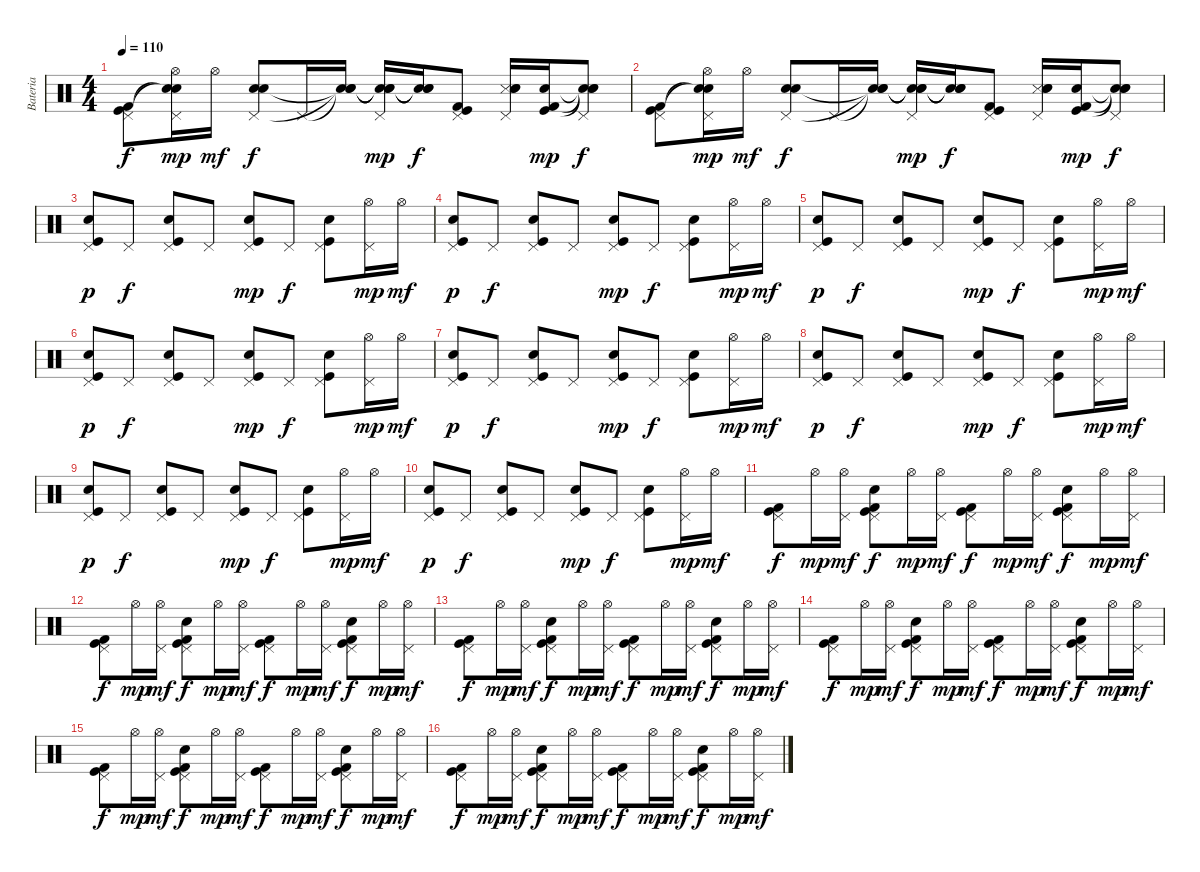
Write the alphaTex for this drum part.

\track ("Bateria" "Bateria") {instrument percussion}
\staff {score}
\articulation defaults
\ts (4 4)
\tempo 110
\clef neutral
\ks c
("Kick (hit)" "Kick (hit) 2" "Pedal Hi-Hat (hit)").8{dy f} ("Snare (hit)"{t} "Snare (hit)"{t} "Hi-Hat (open)" "Pedal Hi-Hat (hit)").16{dy mp} "Hi-Hat (open)".16{dy mf} ("Snare (hit) 2" "Electric Snare (hit)" "Pedal Hi-Hat (hit)").8{dy f} "Pedal Hi-Hat (hit)".16 ("Snare (hit)"{t} "Snare (hit)"{t} "Snare (hit)"{t}).16 ("Snare (hit)"{t} "Snare (hit)"{t} "Snare (hit)"{t} "Pedal Hi-Hat (hit)").16{dy mp} ("Snare (hit)"{t} "Snare (hit)"{t} "Snare (hit)"{t}).16{dy f} ("Kick (hit) 2" "Kick (hit)" "Pedal Hi-Hat (hit)").8 ("Snare (side stick) 3" "Electric Snare (hit)" "Snare (hit) 2" "Pedal Hi-Hat (hit)").16 ("Kick (hit) 2" "Snare (hit) 2" "Kick (hit)").16{dy mp} ("Snare (hit)"{t} "Snare (hit)"{t} "Snare (hit)"{t} "Pedal Hi-Hat (hit)").8{dy f} |
("Kick (hit)" "Kick (hit) 2" "Pedal Hi-Hat (hit)").8 ("Snare (hit)"{t} "Snare (hit)"{t} "Hi-Hat (open)" "Pedal Hi-Hat (hit)").16{dy mp} "Hi-Hat (open)".16{dy mf} ("Snare (hit) 2" "Electric Snare (hit)" "Pedal Hi-Hat (hit)").8{dy f} "Pedal Hi-Hat (hit)".16 ("Snare (hit)"{t} "Snare (hit)"{t} "Snare (hit)"{t}).16 ("Snare (hit)"{t} "Snare (hit)"{t} "Snare (hit)"{t} "Pedal Hi-Hat (hit)").16{dy mp} ("Snare (hit)"{t} "Snare (hit)"{t} "Snare (hit)"{t}).16{dy f} ("Kick (hit) 2" "Kick (hit)" "Pedal Hi-Hat (hit)").8 ("Snare (side stick) 3" "Electric Snare (hit)" "Snare (hit) 2" "Pedal Hi-Hat (hit)").16 ("Kick (hit) 2" "Snare (hit) 2" "Kick (hit)").16{dy mp} ("Snare (hit)"{t} "Snare (hit)"{t} "Snare (hit)"{t} "Pedal Hi-Hat (hit)").8{dy f} |
("Kick (hit)" "Electric Snare (hit)" "Pedal Hi-Hat (hit)").8{dy p} "Pedal Hi-Hat (hit)".8{dy f} ("Kick (hit)" "Electric Snare (hit)" "Pedal Hi-Hat (hit)").8 "Pedal Hi-Hat (hit)".8 ("Kick (hit)" "Electric Snare (hit)" "Pedal Hi-Hat (hit)").8{dy mp} "Pedal Hi-Hat (hit)".8{dy f} ("Kick (hit)" "Electric Snare (hit)" "Pedal Hi-Hat (hit)").8 ("Pedal Hi-Hat (hit)" "Hi-Hat (open)").16{dy mp} "Hi-Hat (open)".16{dy mf} |
("Kick (hit)" "Electric Snare (hit)" "Pedal Hi-Hat (hit)").8{dy p} "Pedal Hi-Hat (hit)".8{dy f} ("Kick (hit)" "Electric Snare (hit)" "Pedal Hi-Hat (hit)").8 "Pedal Hi-Hat (hit)".8 ("Kick (hit)" "Electric Snare (hit)" "Pedal Hi-Hat (hit)").8{dy mp} "Pedal Hi-Hat (hit)".8{dy f} ("Kick (hit)" "Electric Snare (hit)" "Pedal Hi-Hat (hit)").8 ("Pedal Hi-Hat (hit)" "Hi-Hat (open)").16{dy mp} "Hi-Hat (open)".16{dy mf} |
("Kick (hit)" "Electric Snare (hit)" "Pedal Hi-Hat (hit)").8{dy p} "Pedal Hi-Hat (hit)".8{dy f} ("Kick (hit)" "Electric Snare (hit)" "Pedal Hi-Hat (hit)").8 "Pedal Hi-Hat (hit)".8 ("Kick (hit)" "Electric Snare (hit)" "Pedal Hi-Hat (hit)").8{dy mp} "Pedal Hi-Hat (hit)".8{dy f} ("Kick (hit)" "Electric Snare (hit)" "Pedal Hi-Hat (hit)").8 ("Pedal Hi-Hat (hit)" "Hi-Hat (open)").16{dy mp} "Hi-Hat (open)".16{dy mf} |
("Kick (hit)" "Electric Snare (hit)" "Pedal Hi-Hat (hit)").8{dy p} "Pedal Hi-Hat (hit)".8{dy f} ("Kick (hit)" "Electric Snare (hit)" "Pedal Hi-Hat (hit)").8 "Pedal Hi-Hat (hit)".8 ("Kick (hit)" "Electric Snare (hit)" "Pedal Hi-Hat (hit)").8{dy mp} "Pedal Hi-Hat (hit)".8{dy f} ("Kick (hit)" "Electric Snare (hit)" "Pedal Hi-Hat (hit)").8 ("Pedal Hi-Hat (hit)" "Hi-Hat (open)").16{dy mp} "Hi-Hat (open)".16{dy mf} |
("Kick (hit)" "Electric Snare (hit)" "Pedal Hi-Hat (hit)").8{dy p} "Pedal Hi-Hat (hit)".8{dy f} ("Kick (hit)" "Electric Snare (hit)" "Pedal Hi-Hat (hit)").8 "Pedal Hi-Hat (hit)".8 ("Kick (hit)" "Electric Snare (hit)" "Pedal Hi-Hat (hit)").8{dy mp} "Pedal Hi-Hat (hit)".8{dy f} ("Kick (hit)" "Electric Snare (hit)" "Pedal Hi-Hat (hit)").8 ("Pedal Hi-Hat (hit)" "Hi-Hat (open)").16{dy mp} "Hi-Hat (open)".16{dy mf} |
("Kick (hit)" "Electric Snare (hit)" "Pedal Hi-Hat (hit)").8{dy p} "Pedal Hi-Hat (hit)".8{dy f} ("Kick (hit)" "Electric Snare (hit)" "Pedal Hi-Hat (hit)").8 "Pedal Hi-Hat (hit)".8 ("Kick (hit)" "Electric Snare (hit)" "Pedal Hi-Hat (hit)").8{dy mp} "Pedal Hi-Hat (hit)".8{dy f} ("Kick (hit)" "Electric Snare (hit)" "Pedal Hi-Hat (hit)").8 ("Pedal Hi-Hat (hit)" "Hi-Hat (open)").16{dy mp} "Hi-Hat (open)".16{dy mf} |
("Kick (hit)" "Electric Snare (hit)" "Pedal Hi-Hat (hit)").8{dy p} "Pedal Hi-Hat (hit)".8{dy f} ("Kick (hit)" "Electric Snare (hit)" "Pedal Hi-Hat (hit)").8 "Pedal Hi-Hat (hit)".8 ("Kick (hit)" "Electric Snare (hit)" "Pedal Hi-Hat (hit)").8{dy mp} "Pedal Hi-Hat (hit)".8{dy f} ("Kick (hit)" "Electric Snare (hit)" "Pedal Hi-Hat (hit)").8 ("Pedal Hi-Hat (hit)" "Hi-Hat (open)").16{dy mp} "Hi-Hat (open)".16{dy mf} |
("Kick (hit)" "Electric Snare (hit)" "Pedal Hi-Hat (hit)").8{dy p} "Pedal Hi-Hat (hit)".8{dy f} ("Kick (hit)" "Electric Snare (hit)" "Pedal Hi-Hat (hit)").8 "Pedal Hi-Hat (hit)".8 ("Kick (hit)" "Electric Snare (hit)" "Pedal Hi-Hat (hit)").8{dy mp} "Pedal Hi-Hat (hit)".8{dy f} ("Kick (hit)" "Electric Snare (hit)" "Pedal Hi-Hat (hit)").8 ("Pedal Hi-Hat (hit)" "Hi-Hat (open)").16{dy mp} "Hi-Hat (open)".16{dy mf} |
("Kick (hit)" "Kick (hit) 2" "Pedal Hi-Hat (hit)").8{dy f} "Hi-Hat (open)".16{dy mp} ("Hi-Hat (open)" "Pedal Hi-Hat (hit)").16{dy mf} ("Kick (hit) 2" "Kick (hit)" "Electric Snare (hit)" "Pedal Hi-Hat (hit)").8{dy f} "Hi-Hat (open)".16{dy mp} ("Hi-Hat (open)" "Pedal Hi-Hat (hit)").16{dy mf} ("Kick (hit) 2" "Kick (hit)" "Pedal Hi-Hat (hit)").8{dy f} "Hi-Hat (open)".16{dy mp} ("Hi-Hat (open)" "Pedal Hi-Hat (hit)").16{dy mf} ("Kick (hit) 2" "Kick (hit)" "Electric Snare (hit)" "Pedal Hi-Hat (hit)").8{dy f} "Hi-Hat (open)".16{dy mp} ("Hi-Hat (open)" "Pedal Hi-Hat (hit)").16{dy mf} |
("Kick (hit)" "Kick (hit) 2" "Pedal Hi-Hat (hit)").8{dy f} "Hi-Hat (open)".16{dy mp} ("Hi-Hat (open)" "Pedal Hi-Hat (hit)").16{dy mf} ("Kick (hit) 2" "Kick (hit)" "Electric Snare (hit)" "Pedal Hi-Hat (hit)").8{dy f} "Hi-Hat (open)".16{dy mp} ("Hi-Hat (open)" "Pedal Hi-Hat (hit)").16{dy mf} ("Kick (hit) 2" "Kick (hit)" "Pedal Hi-Hat (hit)").8{dy f} "Hi-Hat (open)".16{dy mp} ("Hi-Hat (open)" "Pedal Hi-Hat (hit)").16{dy mf} ("Kick (hit) 2" "Kick (hit)" "Electric Snare (hit)" "Pedal Hi-Hat (hit)").8{dy f} "Hi-Hat (open)".16{dy mp} ("Hi-Hat (open)" "Pedal Hi-Hat (hit)").16{dy mf} |
("Kick (hit)" "Kick (hit) 2" "Pedal Hi-Hat (hit)").8{dy f} "Hi-Hat (open)".16{dy mp} ("Hi-Hat (open)" "Pedal Hi-Hat (hit)").16{dy mf} ("Kick (hit) 2" "Kick (hit)" "Electric Snare (hit)" "Pedal Hi-Hat (hit)").8{dy f} "Hi-Hat (open)".16{dy mp} ("Hi-Hat (open)" "Pedal Hi-Hat (hit)").16{dy mf} ("Kick (hit) 2" "Kick (hit)" "Pedal Hi-Hat (hit)").8{dy f} "Hi-Hat (open)".16{dy mp} ("Hi-Hat (open)" "Pedal Hi-Hat (hit)").16{dy mf} ("Kick (hit) 2" "Kick (hit)" "Electric Snare (hit)" "Pedal Hi-Hat (hit)").8{dy f} "Hi-Hat (open)".16{dy mp} ("Hi-Hat (open)" "Pedal Hi-Hat (hit)").16{dy mf} |
("Kick (hit)" "Kick (hit) 2" "Pedal Hi-Hat (hit)").8{dy f} "Hi-Hat (open)".16{dy mp} ("Hi-Hat (open)" "Pedal Hi-Hat (hit)").16{dy mf} ("Kick (hit) 2" "Kick (hit)" "Electric Snare (hit)" "Pedal Hi-Hat (hit)").8{dy f} "Hi-Hat (open)".16{dy mp} ("Hi-Hat (open)" "Pedal Hi-Hat (hit)").16{dy mf} ("Kick (hit) 2" "Kick (hit)" "Pedal Hi-Hat (hit)").8{dy f} "Hi-Hat (open)".16{dy mp} ("Hi-Hat (open)" "Pedal Hi-Hat (hit)").16{dy mf} ("Kick (hit) 2" "Kick (hit)" "Electric Snare (hit)" "Pedal Hi-Hat (hit)").8{dy f} "Hi-Hat (open)".16{dy mp} ("Hi-Hat (open)" "Pedal Hi-Hat (hit)").16{dy mf} |
("Kick (hit)" "Kick (hit) 2" "Pedal Hi-Hat (hit)").8{dy f} "Hi-Hat (open)".16{dy mp} ("Hi-Hat (open)" "Pedal Hi-Hat (hit)").16{dy mf} ("Kick (hit) 2" "Kick (hit)" "Electric Snare (hit)" "Pedal Hi-Hat (hit)").8{dy f} "Hi-Hat (open)".16{dy mp} ("Hi-Hat (open)" "Pedal Hi-Hat (hit)").16{dy mf} ("Kick (hit) 2" "Kick (hit)" "Pedal Hi-Hat (hit)").8{dy f} "Hi-Hat (open)".16{dy mp} ("Hi-Hat (open)" "Pedal Hi-Hat (hit)").16{dy mf} ("Kick (hit) 2" "Kick (hit)" "Electric Snare (hit)" "Pedal Hi-Hat (hit)").8{dy f} "Hi-Hat (open)".16{dy mp} ("Hi-Hat (open)" "Pedal Hi-Hat (hit)").16{dy mf} |
("Kick (hit)" "Kick (hit) 2" "Pedal Hi-Hat (hit)").8{dy f} "Hi-Hat (open)".16{dy mp} ("Hi-Hat (open)" "Pedal Hi-Hat (hit)").16{dy mf} ("Kick (hit) 2" "Kick (hit)" "Electric Snare (hit)" "Pedal Hi-Hat (hit)").8{dy f} "Hi-Hat (open)".16{dy mp} ("Hi-Hat (open)" "Pedal Hi-Hat (hit)").16{dy mf} ("Kick (hit) 2" "Kick (hit)" "Pedal Hi-Hat (hit)").8{dy f} "Hi-Hat (open)".16{dy mp} ("Hi-Hat (open)" "Pedal Hi-Hat (hit)").16{dy mf} ("Kick (hit) 2" "Kick (hit)" "Electric Snare (hit)" "Pedal Hi-Hat (hit)").8{dy f} "Hi-Hat (open)".16{dy mp} ("Hi-Hat (open)" "Pedal Hi-Hat (hit)").16{dy mf}
